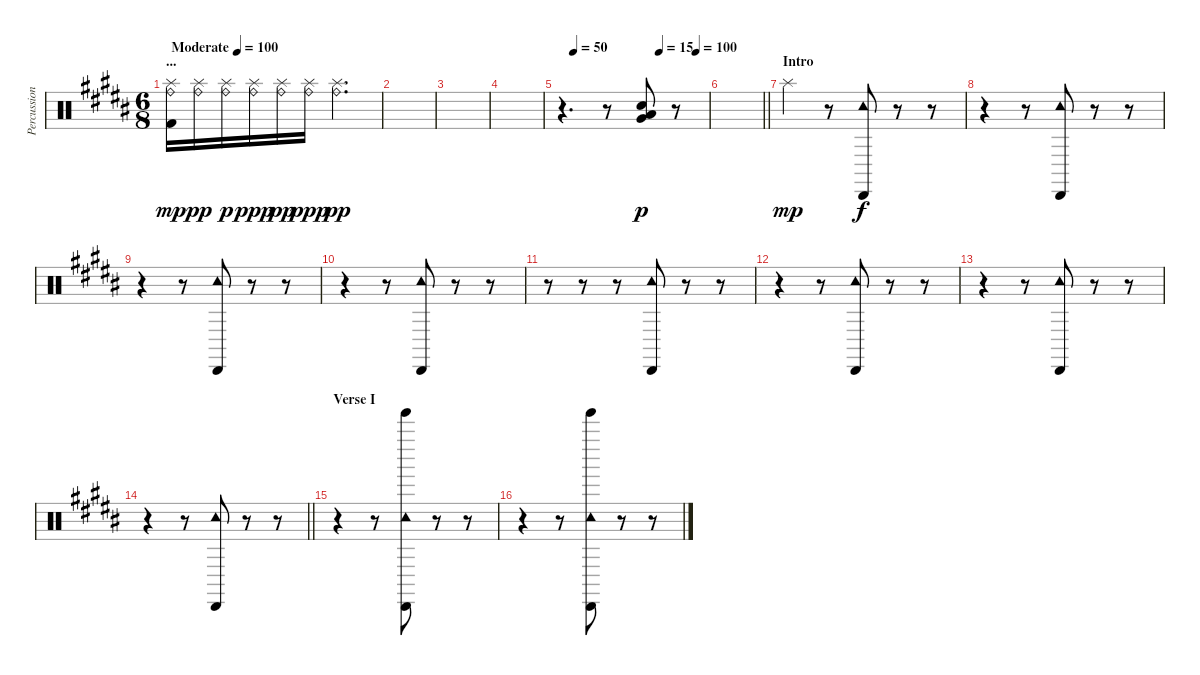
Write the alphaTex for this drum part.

\track ("Percussion" "Percussion") {instrument percussion}
\staff {score}
\articulation defaults
\ts (6 8)
\section ("" "...")
\tempo (100 "Moderate")
\clef neutral
\ks b
("Splash (hit)" "Ride (bell)" "Kick (hit) 2").16{dy mp} ("Splash (hit)" "Ride (bell)").16{dy pp} ("Splash (hit)" "Ride (bell)").16{dy p} ("Splash (hit)" "Ride (bell)").16{dy ppp} ("Splash (hit)" "Ride (bell)").16{dy pp} ("Splash (hit)" "Ride (bell)").16{dy ppp} ("Splash (hit)" "Ride (bell)").4{d dy pp} |
|
|
|
\tempo (50 0.08333333333333333)
\tempo (15 0.6666666666666666)
\tempo (100 0.9166666666666666)
r.4{d} r.8 ("Very Low Tom (hit)" "Low Floor Tom (hit)" "Electric Snare (hit)").8{dy p} r.8 |
\barLineRight lightlight
|
\section ("" "Intro")
"Splash (hit)".4{dy mp} r.8 ("Tambourine (hit)" "Cabasa (hit)").8{dy f} r.8 r.8 |
r.4 r.8 ("Tambourine (hit)" "Cabasa (hit)").8 r.8 r.8 |
r.4 r.8 ("Tambourine (hit)" "Cabasa (hit)").8 r.8 r.8 |
r.4 r.8 ("Tambourine (hit)" "Cabasa (hit)").8 r.8 r.8 |
r.8 r.8 r.8 ("Tambourine (hit)" "Cabasa (hit)").8 r.8 r.8 |
r.4 r.8 ("Tambourine (hit)" "Cabasa (hit)").8 r.8 r.8 |
r.4 r.8 ("Tambourine (hit)" "Cabasa (hit)").8 r.8 r.8 |
\barLineRight lightlight
r.4 r.8 ("Tambourine (hit)" "Cabasa (hit)").8 r.8 r.8 |
\section ("" "Verse I")
r.4 r.8 ("Tambourine (hit)" "Cabasa (hit)" "Tinkle Bell (hit)").8 r.8 r.8 |
r.4 r.8 ("Tambourine (hit)" "Cabasa (hit)" "Tinkle Bell (hit)").8 r.8 r.8
